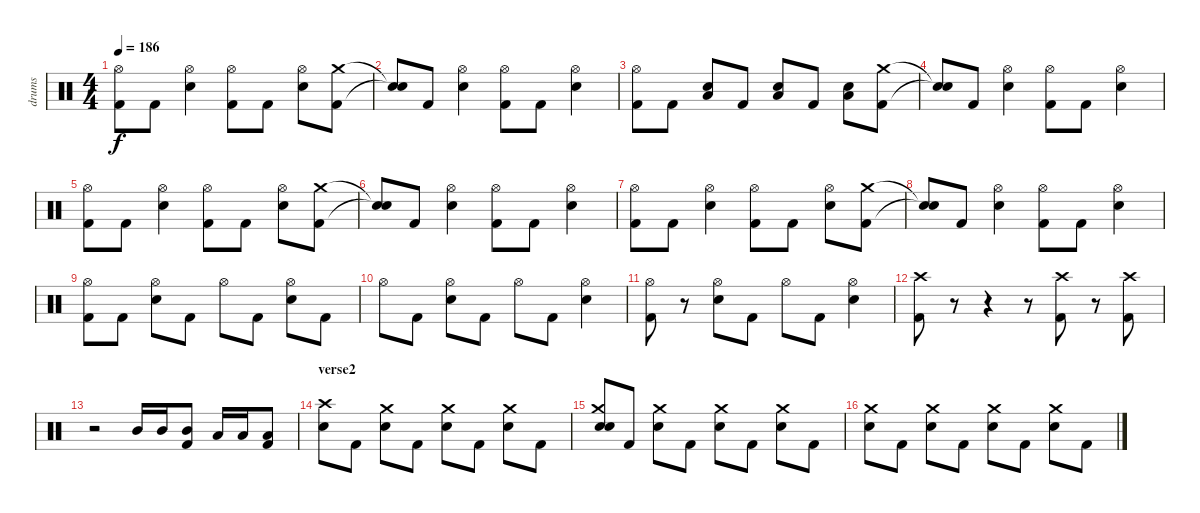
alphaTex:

\track ("drums" "drums") {instrument percussion}
\staff {score}
\articulation defaults
\ts (4 4)
\tempo 186
\clef neutral
\ks c
("Hi-Hat (open)" "Kick (hit) 2").8{dy f} "Kick (hit) 2".8 ("Hi-Hat (open)" "Electric Snare (hit)").4 ("Hi-Hat (open)" "Kick (hit) 2").8 "Kick (hit) 2".8 ("Hi-Hat (open)" "Electric Snare (hit)").8 ("Crash medium (hit)" "Kick (hit) 2").8 |
("Snare (hit)"{t} "Snare (hit)"{t}).8 "Kick (hit) 2".8 ("Hi-Hat (open)" "Electric Snare (hit)").4 ("Hi-Hat (open)" "Kick (hit) 2").8 "Kick (hit) 2".8 ("Hi-Hat (open)" "Electric Snare (hit)").4 |
("Hi-Hat (open)" "Kick (hit) 2").8 "Kick (hit) 2".8 ("Low Floor Tom (hit)" "Electric Snare (hit)").8 "Kick (hit) 2".8 ("Low Floor Tom (hit)" "Electric Snare (hit)").8 "Kick (hit) 2".8 ("Low Floor Tom (hit)" "Electric Snare (hit)").8 ("Crash medium (hit)" "Kick (hit) 2").8 |
("Snare (hit)"{t} "Snare (hit)"{t}).8 "Kick (hit) 2".8 ("Hi-Hat (open)" "Electric Snare (hit)").4 ("Hi-Hat (open)" "Kick (hit) 2").8 "Kick (hit) 2".8 ("Hi-Hat (open)" "Electric Snare (hit)").4 |
("Hi-Hat (open)" "Kick (hit) 2").8 "Kick (hit) 2".8 ("Hi-Hat (open)" "Electric Snare (hit)").4 ("Hi-Hat (open)" "Kick (hit) 2").8 "Kick (hit) 2".8 ("Hi-Hat (open)" "Electric Snare (hit)").8 ("Crash medium (hit)" "Kick (hit) 2").8 |
("Snare (hit)"{t} "Snare (hit)"{t}).8 "Kick (hit) 2".8 ("Hi-Hat (open)" "Electric Snare (hit)").4 ("Hi-Hat (open)" "Kick (hit) 2").8 "Kick (hit) 2".8 ("Hi-Hat (open)" "Electric Snare (hit)").4 |
("Hi-Hat (open)" "Kick (hit) 2").8 "Kick (hit) 2".8 ("Hi-Hat (open)" "Electric Snare (hit)").4 ("Hi-Hat (open)" "Kick (hit) 2").8 "Kick (hit) 2".8 ("Hi-Hat (open)" "Electric Snare (hit)").8 ("Crash medium (hit)" "Kick (hit) 2").8 |
("Snare (hit)"{t} "Snare (hit)"{t}).8 "Kick (hit) 2".8 ("Hi-Hat (open)" "Electric Snare (hit)").4 ("Hi-Hat (open)" "Kick (hit) 2").8 "Kick (hit) 2".8 ("Hi-Hat (open)" "Electric Snare (hit)").4 |
("Hi-Hat (open)" "Kick (hit) 2").8 "Kick (hit) 2".8 ("Hi-Hat (open)" "Electric Snare (hit)").8 "Kick (hit) 2".8 "Hi-Hat (open)".8 "Kick (hit) 2".8 ("Hi-Hat (open)" "Electric Snare (hit)").8 "Kick (hit) 2".8 |
"Hi-Hat (open)".8 "Kick (hit) 2".8 ("Hi-Hat (open)" "Electric Snare (hit)").8 "Kick (hit) 2".8 "Hi-Hat (open)".8 "Kick (hit) 2".8 ("Hi-Hat (open)" "Electric Snare (hit)").4 |
("Hi-Hat (open)" "Kick (hit) 2").8 r.8 ("Hi-Hat (open)" "Electric Snare (hit)").8 "Kick (hit) 2".8 "Hi-Hat (open)".8 "Kick (hit) 2".8 ("Hi-Hat (open)" "Electric Snare (hit)").4 |
("Crash high (hit)" "Kick (hit) 2").8 r.8 r.4 r.8 ("Crash high (hit)" "Kick (hit) 2").8 r.8 ("Crash high (hit)" "Kick (hit) 2").8 |
r.2 "Mid Tom (hit)".16 "Mid Tom (hit)".16 ("Mid Tom (hit)" "Kick (hit) 2").8 "Low Tom (hit)".16 "Low Tom (hit)".16 ("Low Tom (hit)" "Kick (hit) 2").8 |
\section ("" "verse2")
("Crash high (hit)" "Electric Snare (hit)").8 "Kick (hit) 2".8 ("Crash medium (hit)" "Electric Snare (hit)").8 "Kick (hit) 2".8 ("Crash medium (hit)" "Electric Snare (hit)").8 "Kick (hit) 2".8 ("Crash medium (hit)" "Electric Snare (hit)").8 "Kick (hit) 2".8 |
("Crash medium (hit)" "Electric Snare (hit)" "Snare (hit)").8 "Kick (hit) 2".8 ("Crash medium (hit)" "Electric Snare (hit)").8 "Kick (hit) 2".8 ("Crash medium (hit)" "Electric Snare (hit)").8 "Kick (hit) 2".8 ("Crash medium (hit)" "Electric Snare (hit)").8 "Kick (hit) 2".8 |
("Crash medium (hit)" "Electric Snare (hit)").8 "Kick (hit) 2".8 ("Crash medium (hit)" "Electric Snare (hit)").8 "Kick (hit) 2".8 ("Crash medium (hit)" "Electric Snare (hit)").8 "Kick (hit) 2".8 ("Crash medium (hit)" "Electric Snare (hit)").8 "Kick (hit) 2".8
